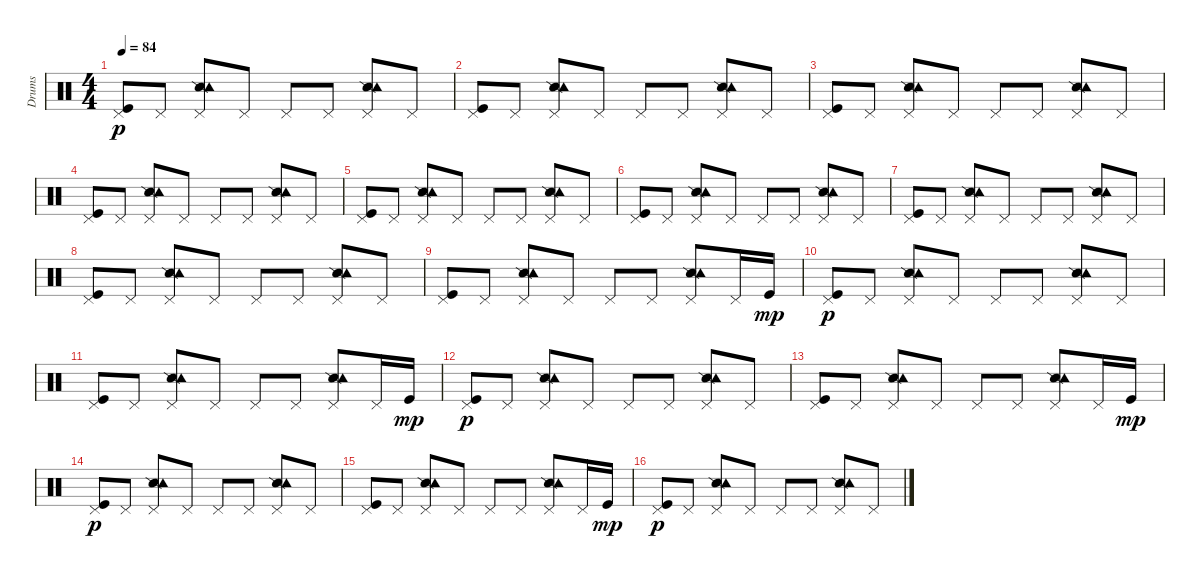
\track ("Drums" "Drums") {instrument percussion}
\staff {score}
\articulation defaults
\ts (4 4)
\tempo 84
\clef neutral
\ks c
("Kick (hit)" "Pedal Hi-Hat (hit)").8{dy p} "Pedal Hi-Hat (hit)".8 ("Snare (side stick) 2" "Pedal Hi-Hat (hit)" "Tambourine (hit)").8 "Pedal Hi-Hat (hit)".8 "Pedal Hi-Hat (hit)".8 "Pedal Hi-Hat (hit)".8 ("Snare (side stick) 2" "Pedal Hi-Hat (hit)" "Tambourine (hit)").8 "Pedal Hi-Hat (hit)".8 |
("Kick (hit)" "Pedal Hi-Hat (hit)").8 "Pedal Hi-Hat (hit)".8 ("Snare (side stick) 2" "Pedal Hi-Hat (hit)" "Tambourine (hit)").8 "Pedal Hi-Hat (hit)".8 "Pedal Hi-Hat (hit)".8 "Pedal Hi-Hat (hit)".8 ("Snare (side stick) 2" "Pedal Hi-Hat (hit)" "Tambourine (hit)").8 "Pedal Hi-Hat (hit)".8 |
("Kick (hit)" "Pedal Hi-Hat (hit)").8 "Pedal Hi-Hat (hit)".8 ("Snare (side stick) 2" "Pedal Hi-Hat (hit)" "Tambourine (hit)").8 "Pedal Hi-Hat (hit)".8 "Pedal Hi-Hat (hit)".8 "Pedal Hi-Hat (hit)".8 ("Snare (side stick) 2" "Pedal Hi-Hat (hit)" "Tambourine (hit)").8 "Pedal Hi-Hat (hit)".8 |
("Kick (hit)" "Pedal Hi-Hat (hit)").8 "Pedal Hi-Hat (hit)".8 ("Snare (side stick) 2" "Pedal Hi-Hat (hit)" "Tambourine (hit)").8 "Pedal Hi-Hat (hit)".8 "Pedal Hi-Hat (hit)".8 "Pedal Hi-Hat (hit)".8 ("Snare (side stick) 2" "Pedal Hi-Hat (hit)" "Tambourine (hit)").8 "Pedal Hi-Hat (hit)".8 |
("Kick (hit)" "Pedal Hi-Hat (hit)").8 "Pedal Hi-Hat (hit)".8 ("Snare (side stick) 2" "Pedal Hi-Hat (hit)" "Tambourine (hit)").8 "Pedal Hi-Hat (hit)".8 "Pedal Hi-Hat (hit)".8 "Pedal Hi-Hat (hit)".8 ("Snare (side stick) 2" "Pedal Hi-Hat (hit)" "Tambourine (hit)").8 "Pedal Hi-Hat (hit)".8 |
("Kick (hit)" "Pedal Hi-Hat (hit)").8 "Pedal Hi-Hat (hit)".8 ("Snare (side stick) 2" "Pedal Hi-Hat (hit)" "Tambourine (hit)").8 "Pedal Hi-Hat (hit)".8 "Pedal Hi-Hat (hit)".8 "Pedal Hi-Hat (hit)".8 ("Snare (side stick) 2" "Pedal Hi-Hat (hit)" "Tambourine (hit)").8 "Pedal Hi-Hat (hit)".8 |
("Kick (hit)" "Pedal Hi-Hat (hit)").8 "Pedal Hi-Hat (hit)".8 ("Snare (side stick) 2" "Pedal Hi-Hat (hit)" "Tambourine (hit)").8 "Pedal Hi-Hat (hit)".8 "Pedal Hi-Hat (hit)".8 "Pedal Hi-Hat (hit)".8 ("Snare (side stick) 2" "Pedal Hi-Hat (hit)" "Tambourine (hit)").8 "Pedal Hi-Hat (hit)".8 |
("Kick (hit)" "Pedal Hi-Hat (hit)").8 "Pedal Hi-Hat (hit)".8 ("Snare (side stick) 2" "Pedal Hi-Hat (hit)" "Tambourine (hit)").8 "Pedal Hi-Hat (hit)".8 "Pedal Hi-Hat (hit)".8 "Pedal Hi-Hat (hit)".8 ("Snare (side stick) 2" "Pedal Hi-Hat (hit)" "Tambourine (hit)").8 "Pedal Hi-Hat (hit)".8 |
("Kick (hit)" "Pedal Hi-Hat (hit)").8 "Pedal Hi-Hat (hit)".8 ("Snare (side stick) 2" "Pedal Hi-Hat (hit)" "Tambourine (hit)").8 "Pedal Hi-Hat (hit)".8 "Pedal Hi-Hat (hit)".8 "Pedal Hi-Hat (hit)".8 ("Snare (side stick) 2" "Pedal Hi-Hat (hit)" "Tambourine (hit)").8 "Pedal Hi-Hat (hit)".16 "Kick (hit)".16{dy mp} |
("Kick (hit)" "Pedal Hi-Hat (hit)").8{dy p} "Pedal Hi-Hat (hit)".8 ("Snare (side stick) 2" "Pedal Hi-Hat (hit)" "Tambourine (hit)").8 "Pedal Hi-Hat (hit)".8 "Pedal Hi-Hat (hit)".8 "Pedal Hi-Hat (hit)".8 ("Snare (side stick) 2" "Pedal Hi-Hat (hit)" "Tambourine (hit)").8 "Pedal Hi-Hat (hit)".8 |
("Kick (hit)" "Pedal Hi-Hat (hit)").8 "Pedal Hi-Hat (hit)".8 ("Snare (side stick) 2" "Pedal Hi-Hat (hit)" "Tambourine (hit)").8 "Pedal Hi-Hat (hit)".8 "Pedal Hi-Hat (hit)".8 "Pedal Hi-Hat (hit)".8 ("Snare (side stick) 2" "Pedal Hi-Hat (hit)" "Tambourine (hit)").8 "Pedal Hi-Hat (hit)".16 "Kick (hit)".16{dy mp} |
("Kick (hit)" "Pedal Hi-Hat (hit)").8{dy p} "Pedal Hi-Hat (hit)".8 ("Snare (side stick) 2" "Pedal Hi-Hat (hit)" "Tambourine (hit)").8 "Pedal Hi-Hat (hit)".8 "Pedal Hi-Hat (hit)".8 "Pedal Hi-Hat (hit)".8 ("Snare (side stick) 2" "Pedal Hi-Hat (hit)" "Tambourine (hit)").8 "Pedal Hi-Hat (hit)".8 |
("Kick (hit)" "Pedal Hi-Hat (hit)").8 "Pedal Hi-Hat (hit)".8 ("Snare (side stick) 2" "Pedal Hi-Hat (hit)" "Tambourine (hit)").8 "Pedal Hi-Hat (hit)".8 "Pedal Hi-Hat (hit)".8 "Pedal Hi-Hat (hit)".8 ("Snare (side stick) 2" "Pedal Hi-Hat (hit)" "Tambourine (hit)").8 "Pedal Hi-Hat (hit)".16 "Kick (hit)".16{dy mp} |
("Kick (hit)" "Pedal Hi-Hat (hit)").8{dy p} "Pedal Hi-Hat (hit)".8 ("Snare (side stick) 2" "Pedal Hi-Hat (hit)" "Tambourine (hit)").8 "Pedal Hi-Hat (hit)".8 "Pedal Hi-Hat (hit)".8 "Pedal Hi-Hat (hit)".8 ("Snare (side stick) 2" "Pedal Hi-Hat (hit)" "Tambourine (hit)").8 "Pedal Hi-Hat (hit)".8 |
("Kick (hit)" "Pedal Hi-Hat (hit)").8 "Pedal Hi-Hat (hit)".8 ("Snare (side stick) 2" "Pedal Hi-Hat (hit)" "Tambourine (hit)").8 "Pedal Hi-Hat (hit)".8 "Pedal Hi-Hat (hit)".8 "Pedal Hi-Hat (hit)".8 ("Snare (side stick) 2" "Pedal Hi-Hat (hit)" "Tambourine (hit)").8 "Pedal Hi-Hat (hit)".16 "Kick (hit)".16{dy mp} |
("Kick (hit)" "Pedal Hi-Hat (hit)").8{dy p} "Pedal Hi-Hat (hit)".8 ("Snare (side stick) 2" "Pedal Hi-Hat (hit)" "Tambourine (hit)").8 "Pedal Hi-Hat (hit)".8 "Pedal Hi-Hat (hit)".8 "Pedal Hi-Hat (hit)".8 ("Snare (side stick) 2" "Pedal Hi-Hat (hit)" "Tambourine (hit)").8 "Pedal Hi-Hat (hit)".8
